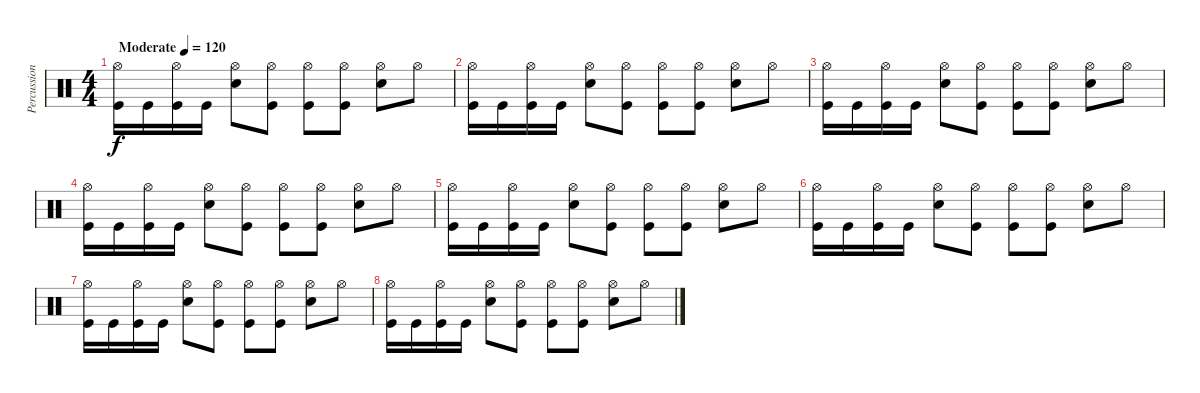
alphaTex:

\track ("Percussion" "Percussion") {instrument percussion}
\staff {score}
\articulation defaults
\ts (4 4)
\tempo (120 "Moderate")
\clef neutral
\ks c
("Hi-Hat (open)" "Kick (hit)").16{dy f} "Kick (hit)".16 ("Hi-Hat (open)" "Kick (hit)").16 "Kick (hit)".16 ("Hi-Hat (open)" "Snare (hit) 2").8 ("Hi-Hat (open)" "Kick (hit)").8 ("Hi-Hat (open)" "Kick (hit)").8 ("Hi-Hat (open)" "Kick (hit)").8 ("Hi-Hat (open)" "Snare (hit) 2").8 "Hi-Hat (open)".8 |
("Hi-Hat (open)" "Kick (hit)").16 "Kick (hit)".16 ("Hi-Hat (open)" "Kick (hit)").16 "Kick (hit)".16 ("Hi-Hat (open)" "Snare (hit) 2").8 ("Hi-Hat (open)" "Kick (hit)").8 ("Hi-Hat (open)" "Kick (hit)").8 ("Hi-Hat (open)" "Kick (hit)").8 ("Hi-Hat (open)" "Snare (hit) 2").8 "Hi-Hat (open)".8 |
("Hi-Hat (open)" "Kick (hit)").16 "Kick (hit)".16 ("Hi-Hat (open)" "Kick (hit)").16 "Kick (hit)".16 ("Hi-Hat (open)" "Snare (hit) 2").8 ("Hi-Hat (open)" "Kick (hit)").8 ("Hi-Hat (open)" "Kick (hit)").8 ("Hi-Hat (open)" "Kick (hit)").8 ("Hi-Hat (open)" "Snare (hit) 2").8 "Hi-Hat (open)".8 |
("Hi-Hat (open)" "Kick (hit)").16 "Kick (hit)".16 ("Hi-Hat (open)" "Kick (hit)").16 "Kick (hit)".16 ("Hi-Hat (open)" "Snare (hit) 2").8 ("Hi-Hat (open)" "Kick (hit)").8 ("Hi-Hat (open)" "Kick (hit)").8 ("Hi-Hat (open)" "Kick (hit)").8 ("Hi-Hat (open)" "Snare (hit) 2").8 "Hi-Hat (open)".8 |
("Hi-Hat (open)" "Kick (hit)").16 "Kick (hit)".16 ("Hi-Hat (open)" "Kick (hit)").16 "Kick (hit)".16 ("Hi-Hat (open)" "Snare (hit) 2").8 ("Hi-Hat (open)" "Kick (hit)").8 ("Hi-Hat (open)" "Kick (hit)").8 ("Hi-Hat (open)" "Kick (hit)").8 ("Hi-Hat (open)" "Snare (hit) 2").8 "Hi-Hat (open)".8 |
("Hi-Hat (open)" "Kick (hit)").16 "Kick (hit)".16 ("Hi-Hat (open)" "Kick (hit)").16 "Kick (hit)".16 ("Hi-Hat (open)" "Snare (hit) 2").8 ("Hi-Hat (open)" "Kick (hit)").8 ("Hi-Hat (open)" "Kick (hit)").8 ("Hi-Hat (open)" "Kick (hit)").8 ("Hi-Hat (open)" "Snare (hit) 2").8 "Hi-Hat (open)".8 |
("Hi-Hat (open)" "Kick (hit)").16 "Kick (hit)".16 ("Hi-Hat (open)" "Kick (hit)").16 "Kick (hit)".16 ("Hi-Hat (open)" "Snare (hit) 2").8 ("Hi-Hat (open)" "Kick (hit)").8 ("Hi-Hat (open)" "Kick (hit)").8 ("Hi-Hat (open)" "Kick (hit)").8 ("Hi-Hat (open)" "Snare (hit) 2").8 "Hi-Hat (open)".8 |
("Hi-Hat (open)" "Kick (hit)").16 "Kick (hit)".16 ("Hi-Hat (open)" "Kick (hit)").16 "Kick (hit)".16 ("Hi-Hat (open)" "Snare (hit) 2").8 ("Hi-Hat (open)" "Kick (hit)").8 ("Hi-Hat (open)" "Kick (hit)").8 ("Hi-Hat (open)" "Kick (hit)").8 ("Hi-Hat (open)" "Snare (hit) 2").8 "Hi-Hat (open)".8
